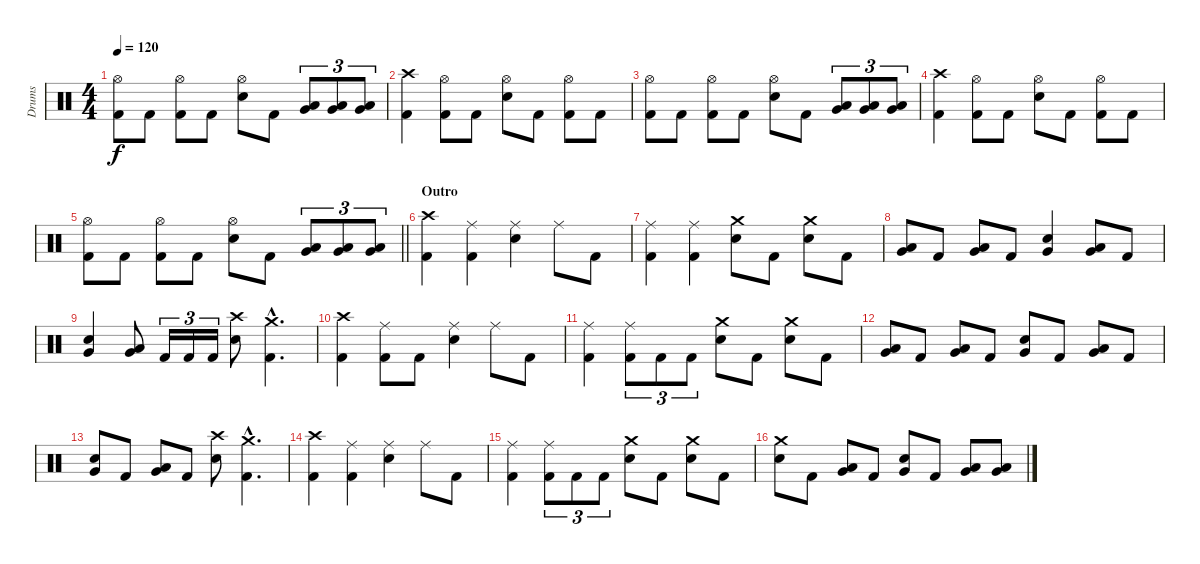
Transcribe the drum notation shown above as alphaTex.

\track ("Drums" "Drums") {instrument percussion}
\staff {score}
\articulation defaults
\ts (4 4)
\tempo 120
\clef neutral
\ks c
("Hi-Hat (open)" "Kick (hit) 2").8{dy f} "Kick (hit) 2".8 ("Hi-Hat (open)" "Kick (hit) 2").8 "Kick (hit) 2".8 ("Hi-Hat (open)" "Electric Snare (hit)").8 "Kick (hit) 2".8 ("Low Tom (hit)" "Very Low Tom (hit)").8{tu (3 2)} ("Low Tom (hit)" "Very Low Tom (hit)").8{tu (3 2)} ("Low Tom (hit)" "Very Low Tom (hit)").8{tu (3 2)} |
("Crash high (hit)" "Kick (hit) 2").4 ("Hi-Hat (open)" "Kick (hit) 2").8 "Kick (hit) 2".8 ("Hi-Hat (open)" "Electric Snare (hit)").8 "Kick (hit) 2".8 ("Hi-Hat (open)" "Kick (hit) 2").8 "Kick (hit) 2".8 |
("Hi-Hat (open)" "Kick (hit) 2").8 "Kick (hit) 2".8 ("Hi-Hat (open)" "Kick (hit) 2").8 "Kick (hit) 2".8 ("Hi-Hat (open)" "Electric Snare (hit)").8 "Kick (hit) 2".8 ("Low Tom (hit)" "Very Low Tom (hit)").8{tu (3 2)} ("Low Tom (hit)" "Very Low Tom (hit)").8{tu (3 2)} ("Low Tom (hit)" "Very Low Tom (hit)").8{tu (3 2)} |
("Crash high (hit)" "Kick (hit) 2").4 ("Hi-Hat (open)" "Kick (hit) 2").8 "Kick (hit) 2".8 ("Hi-Hat (open)" "Electric Snare (hit)").8 "Kick (hit) 2".8 ("Hi-Hat (open)" "Kick (hit) 2").8 "Kick (hit) 2".8 |
\barLineRight lightlight
("Hi-Hat (open)" "Kick (hit) 2").8 "Kick (hit) 2".8 ("Hi-Hat (open)" "Kick (hit) 2").8 "Kick (hit) 2".8 ("Hi-Hat (open)" "Electric Snare (hit)").8 "Kick (hit) 2".8 ("Low Tom (hit)" "Very Low Tom (hit)").8{tu (3 2)} ("Low Tom (hit)" "Very Low Tom (hit)").8{tu (3 2)} ("Low Tom (hit)" "Very Low Tom (hit)").8{tu (3 2)} |
\section ("" "Outro")
("Crash high (hit)" "Kick (hit) 2").4 ("Ride (middle)" "Kick (hit) 2").4 ("Ride (middle)" "Electric Snare (hit)").4 "Ride (middle)".8 "Kick (hit) 2".8 |
("Ride (middle)" "Kick (hit) 2").4 ("Ride (middle)" "Kick (hit) 2").4 ("Crash medium (hit)" "Electric Snare (hit)").8 "Kick (hit) 2".8 ("Crash medium (hit)" "Electric Snare (hit)").8 "Kick (hit) 2".8 |
("Low Tom (hit)" "Very Low Tom (hit)").8 "Kick (hit) 2".8 ("Low Tom (hit)" "Very Low Tom (hit)").8 "Kick (hit) 2".8 ("Electric Snare (hit)" "Very Low Tom (hit)").4 ("Low Tom (hit)" "Very Low Tom (hit)").8 "Kick (hit) 2".8 |
("Electric Snare (hit)" "Very Low Tom (hit)").4 ("Low Tom (hit)" "Very Low Tom (hit)").8 "Kick (hit) 2".16{tu (3 2)} "Kick (hit) 2".16{tu (3 2)} "Kick (hit) 2".16{tu (3 2)} ("Crash high (hit)" "Electric Snare (hit)").8 ("Crash medium (hit)"{hac} "Kick (hit) 2"{hac}).4{d} |
("Crash high (hit)" "Kick (hit) 2").4 ("Ride (middle)" "Kick (hit) 2").8 "Kick (hit) 2".8 ("Ride (middle)" "Electric Snare (hit)").4 "Ride (middle)".8 "Kick (hit) 2".8 |
("Ride (middle)" "Kick (hit) 2").4 ("Ride (middle)" "Kick (hit) 2").8{tu (3 2)} "Kick (hit) 2".8{tu (3 2)} "Kick (hit) 2".8{tu (3 2)} ("Crash medium (hit)" "Electric Snare (hit)").8 "Kick (hit) 2".8 ("Crash medium (hit)" "Electric Snare (hit)").8 "Kick (hit) 2".8 |
("Low Tom (hit)" "Very Low Tom (hit)").8 "Kick (hit) 2".8 ("Low Tom (hit)" "Very Low Tom (hit)").8 "Kick (hit) 2".8 ("Electric Snare (hit)" "Very Low Tom (hit)").8 "Kick (hit) 2".8 ("Low Tom (hit)" "Very Low Tom (hit)").8 "Kick (hit) 2".8 |
("Electric Snare (hit)" "Very Low Tom (hit)").8 "Kick (hit) 2".8 ("Low Tom (hit)" "Very Low Tom (hit)").8 "Kick (hit) 2".8 ("Crash high (hit)" "Electric Snare (hit)").8 ("Crash medium (hit)"{hac} "Kick (hit) 2"{hac}).4{d} |
("Crash high (hit)" "Kick (hit) 2").4 ("Ride (middle)" "Kick (hit) 2").4 ("Ride (middle)" "Electric Snare (hit)").4 "Ride (middle)".8 "Kick (hit) 2".8 |
("Ride (middle)" "Kick (hit) 2").4 ("Ride (middle)" "Kick (hit) 2").8{tu (3 2)} "Kick (hit) 2".8{tu (3 2)} "Kick (hit) 2".8{tu (3 2)} ("Crash medium (hit)" "Electric Snare (hit)").8 "Kick (hit) 2".8 ("Crash medium (hit)" "Electric Snare (hit)").8 "Kick (hit) 2".8 |
("Crash medium (hit)" "Electric Snare (hit)").8 "Kick (hit) 2".8 ("Low Tom (hit)" "Very Low Tom (hit)").8 "Kick (hit) 2".8 ("Electric Snare (hit)" "Very Low Tom (hit)").8 "Kick (hit) 2".8 ("Low Tom (hit)" "Very Low Tom (hit)").8 ("Low Tom (hit)" "Very Low Tom (hit)").8
